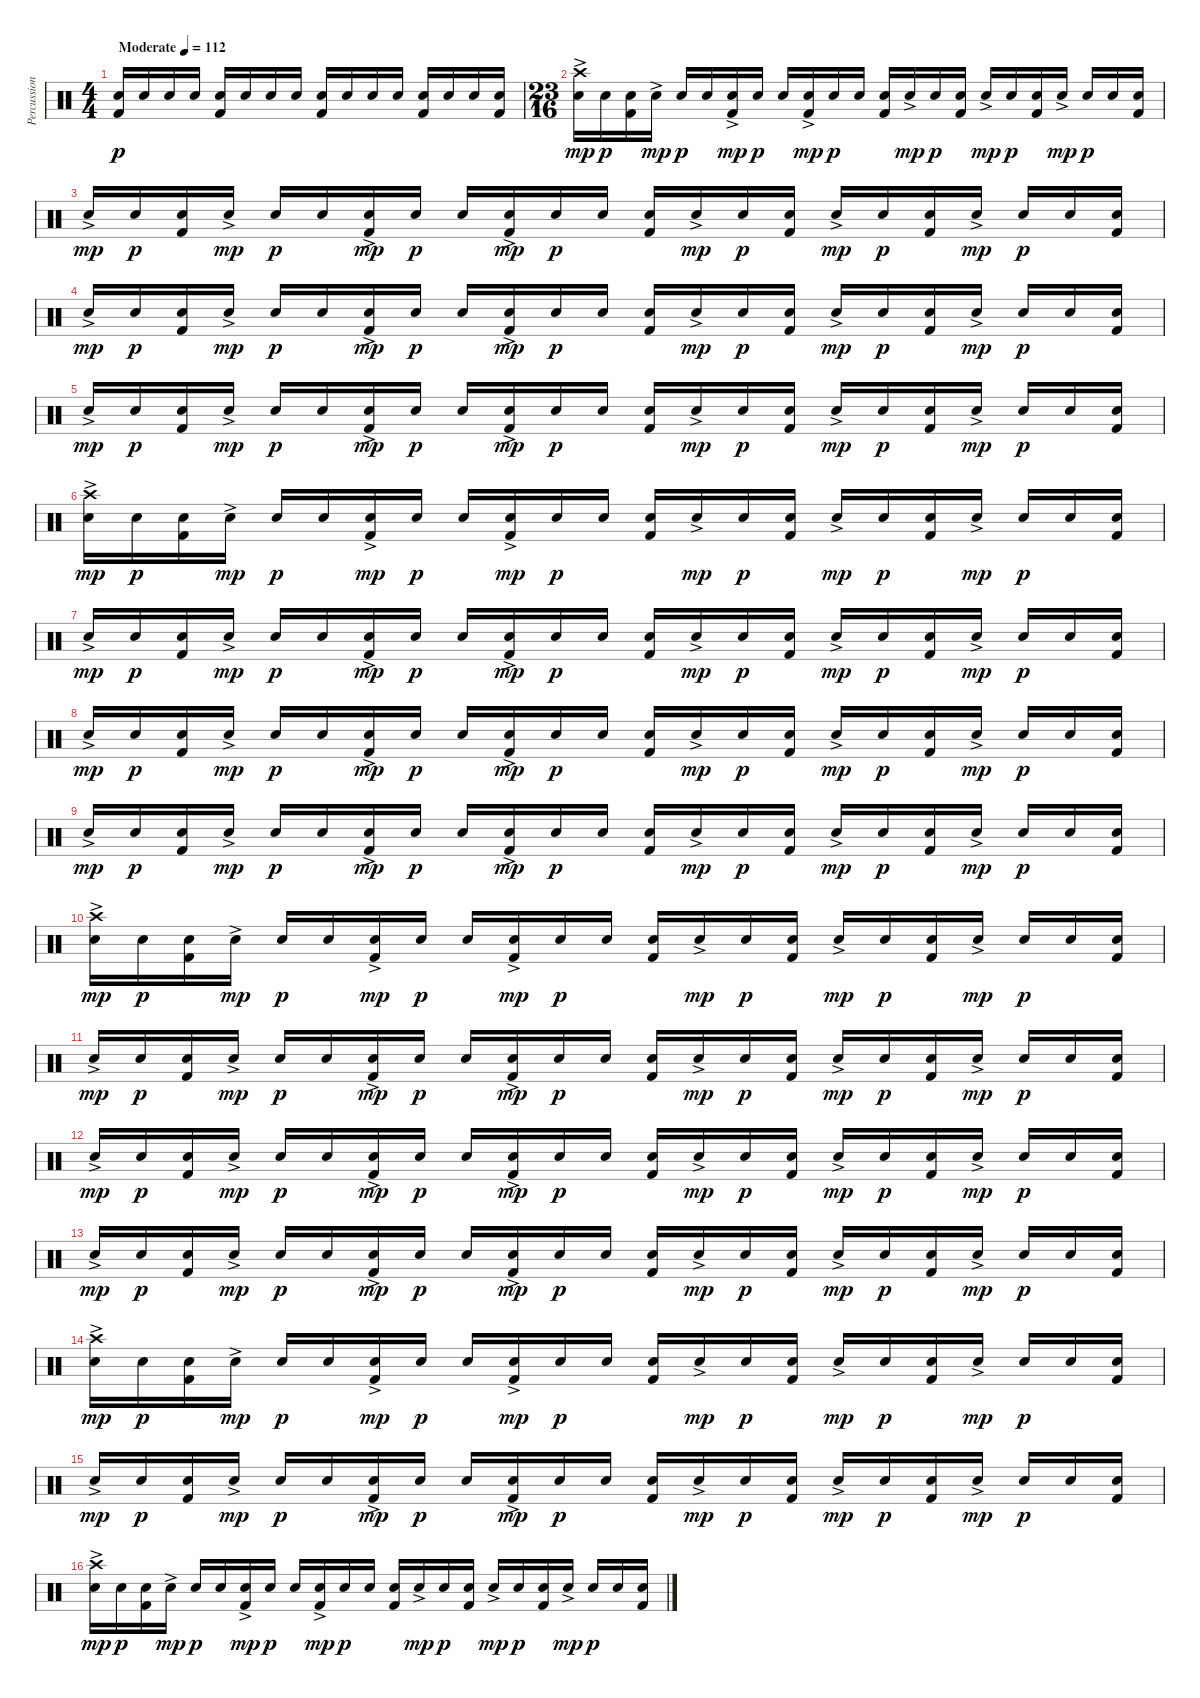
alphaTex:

\track ("Percussion" "Percussion") {instrument percussion}
\staff {score}
\articulation defaults
\ts (4 4)
\tempo (112 "Moderate")
\clef neutral
\ks c
("Kick (hit) 2" "Snare (hit) 2").16{dy p} "Snare (hit) 2".16 "Snare (hit) 2".16 "Snare (hit) 2".16 ("Kick (hit) 2" "Snare (hit) 2").16 "Snare (hit) 2".16 "Snare (hit) 2".16 "Snare (hit) 2".16 ("Kick (hit) 2" "Snare (hit) 2").16 "Snare (hit) 2".16 "Snare (hit) 2".16 "Snare (hit) 2".16 ("Kick (hit) 2" "Snare (hit) 2").16 "Snare (hit) 2".16 "Snare (hit) 2".16 ("Kick (hit) 2" "Snare (hit) 2").16 |
\ts (23 16)
("Crash high (hit)" "Snare (hit) 2"{ac}).16{dy mp} "Snare (hit) 2".16{dy p} ("Kick (hit) 2" "Snare (hit) 2").16 "Snare (hit) 2"{ac}.16{dy mp} "Snare (hit) 2".16{dy p} "Snare (hit) 2".16 ("Kick (hit) 2" "Snare (hit) 2"{ac}).16{dy mp} "Snare (hit) 2".16{dy p} "Snare (hit) 2".16 ("Kick (hit) 2" "Snare (hit) 2"{ac}).16{dy mp} "Snare (hit) 2".16{dy p} "Snare (hit) 2".16 ("Kick (hit) 2" "Snare (hit) 2").16 "Snare (hit) 2"{ac}.16{dy mp} "Snare (hit) 2".16{dy p} ("Kick (hit) 2" "Snare (hit) 2").16 "Snare (hit) 2"{ac}.16{dy mp} "Snare (hit) 2".16{dy p} ("Kick (hit) 2" "Snare (hit) 2").16 "Snare (hit) 2"{ac}.16{dy mp} "Snare (hit) 2".16{dy p} "Snare (hit) 2".16 ("Kick (hit) 2" "Snare (hit) 2").16 |
"Snare (hit) 2"{ac}.16{dy mp} "Snare (hit) 2".16{dy p} ("Kick (hit) 2" "Snare (hit) 2").16 "Snare (hit) 2"{ac}.16{dy mp} "Snare (hit) 2".16{dy p} "Snare (hit) 2".16 ("Kick (hit) 2" "Snare (hit) 2"{ac}).16{dy mp} "Snare (hit) 2".16{dy p} "Snare (hit) 2".16 ("Kick (hit) 2" "Snare (hit) 2"{ac}).16{dy mp} "Snare (hit) 2".16{dy p} "Snare (hit) 2".16 ("Kick (hit) 2" "Snare (hit) 2").16 "Snare (hit) 2"{ac}.16{dy mp} "Snare (hit) 2".16{dy p} ("Kick (hit) 2" "Snare (hit) 2").16 "Snare (hit) 2"{ac}.16{dy mp} "Snare (hit) 2".16{dy p} ("Kick (hit) 2" "Snare (hit) 2").16 "Snare (hit) 2"{ac}.16{dy mp} "Snare (hit) 2".16{dy p} "Snare (hit) 2".16 ("Kick (hit) 2" "Snare (hit) 2").16 |
"Snare (hit) 2"{ac}.16{dy mp} "Snare (hit) 2".16{dy p} ("Kick (hit) 2" "Snare (hit) 2").16 "Snare (hit) 2"{ac}.16{dy mp} "Snare (hit) 2".16{dy p} "Snare (hit) 2".16 ("Kick (hit) 2" "Snare (hit) 2"{ac}).16{dy mp} "Snare (hit) 2".16{dy p} "Snare (hit) 2".16 ("Kick (hit) 2" "Snare (hit) 2"{ac}).16{dy mp} "Snare (hit) 2".16{dy p} "Snare (hit) 2".16 ("Kick (hit) 2" "Snare (hit) 2").16 "Snare (hit) 2"{ac}.16{dy mp} "Snare (hit) 2".16{dy p} ("Kick (hit) 2" "Snare (hit) 2").16 "Snare (hit) 2"{ac}.16{dy mp} "Snare (hit) 2".16{dy p} ("Kick (hit) 2" "Snare (hit) 2").16 "Snare (hit) 2"{ac}.16{dy mp} "Snare (hit) 2".16{dy p} "Snare (hit) 2".16 ("Kick (hit) 2" "Snare (hit) 2").16 |
"Snare (hit) 2"{ac}.16{dy mp} "Snare (hit) 2".16{dy p} ("Kick (hit) 2" "Snare (hit) 2").16 "Snare (hit) 2"{ac}.16{dy mp} "Snare (hit) 2".16{dy p} "Snare (hit) 2".16 ("Kick (hit) 2" "Snare (hit) 2"{ac}).16{dy mp} "Snare (hit) 2".16{dy p} "Snare (hit) 2".16 ("Kick (hit) 2" "Snare (hit) 2"{ac}).16{dy mp} "Snare (hit) 2".16{dy p} "Snare (hit) 2".16 ("Kick (hit) 2" "Snare (hit) 2").16 "Snare (hit) 2"{ac}.16{dy mp} "Snare (hit) 2".16{dy p} ("Kick (hit) 2" "Snare (hit) 2").16 "Snare (hit) 2"{ac}.16{dy mp} "Snare (hit) 2".16{dy p} ("Kick (hit) 2" "Snare (hit) 2").16 "Snare (hit) 2"{ac}.16{dy mp} "Snare (hit) 2".16{dy p} "Snare (hit) 2".16 ("Kick (hit) 2" "Snare (hit) 2").16 |
("Crash high (hit)" "Snare (hit) 2"{ac}).16{dy mp} "Snare (hit) 2".16{dy p} ("Kick (hit) 2" "Snare (hit) 2").16 "Snare (hit) 2"{ac}.16{dy mp} "Snare (hit) 2".16{dy p} "Snare (hit) 2".16 ("Kick (hit) 2" "Snare (hit) 2"{ac}).16{dy mp} "Snare (hit) 2".16{dy p} "Snare (hit) 2".16 ("Kick (hit) 2" "Snare (hit) 2"{ac}).16{dy mp} "Snare (hit) 2".16{dy p} "Snare (hit) 2".16 ("Kick (hit) 2" "Snare (hit) 2").16 "Snare (hit) 2"{ac}.16{dy mp} "Snare (hit) 2".16{dy p} ("Kick (hit) 2" "Snare (hit) 2").16 "Snare (hit) 2"{ac}.16{dy mp} "Snare (hit) 2".16{dy p} ("Kick (hit) 2" "Snare (hit) 2").16 "Snare (hit) 2"{ac}.16{dy mp} "Snare (hit) 2".16{dy p} "Snare (hit) 2".16 ("Kick (hit) 2" "Snare (hit) 2").16 |
"Snare (hit) 2"{ac}.16{dy mp} "Snare (hit) 2".16{dy p} ("Kick (hit) 2" "Snare (hit) 2").16 "Snare (hit) 2"{ac}.16{dy mp} "Snare (hit) 2".16{dy p} "Snare (hit) 2".16 ("Kick (hit) 2" "Snare (hit) 2"{ac}).16{dy mp} "Snare (hit) 2".16{dy p} "Snare (hit) 2".16 ("Kick (hit) 2" "Snare (hit) 2"{ac}).16{dy mp} "Snare (hit) 2".16{dy p} "Snare (hit) 2".16 ("Kick (hit) 2" "Snare (hit) 2").16 "Snare (hit) 2"{ac}.16{dy mp} "Snare (hit) 2".16{dy p} ("Kick (hit) 2" "Snare (hit) 2").16 "Snare (hit) 2"{ac}.16{dy mp} "Snare (hit) 2".16{dy p} ("Kick (hit) 2" "Snare (hit) 2").16 "Snare (hit) 2"{ac}.16{dy mp} "Snare (hit) 2".16{dy p} "Snare (hit) 2".16 ("Kick (hit) 2" "Snare (hit) 2").16 |
"Snare (hit) 2"{ac}.16{dy mp} "Snare (hit) 2".16{dy p} ("Kick (hit) 2" "Snare (hit) 2").16 "Snare (hit) 2"{ac}.16{dy mp} "Snare (hit) 2".16{dy p} "Snare (hit) 2".16 ("Kick (hit) 2" "Snare (hit) 2"{ac}).16{dy mp} "Snare (hit) 2".16{dy p} "Snare (hit) 2".16 ("Kick (hit) 2" "Snare (hit) 2"{ac}).16{dy mp} "Snare (hit) 2".16{dy p} "Snare (hit) 2".16 ("Kick (hit) 2" "Snare (hit) 2").16 "Snare (hit) 2"{ac}.16{dy mp} "Snare (hit) 2".16{dy p} ("Kick (hit) 2" "Snare (hit) 2").16 "Snare (hit) 2"{ac}.16{dy mp} "Snare (hit) 2".16{dy p} ("Kick (hit) 2" "Snare (hit) 2").16 "Snare (hit) 2"{ac}.16{dy mp} "Snare (hit) 2".16{dy p} "Snare (hit) 2".16 ("Kick (hit) 2" "Snare (hit) 2").16 |
"Snare (hit) 2"{ac}.16{dy mp} "Snare (hit) 2".16{dy p} ("Kick (hit) 2" "Snare (hit) 2").16 "Snare (hit) 2"{ac}.16{dy mp} "Snare (hit) 2".16{dy p} "Snare (hit) 2".16 ("Kick (hit) 2" "Snare (hit) 2"{ac}).16{dy mp} "Snare (hit) 2".16{dy p} "Snare (hit) 2".16 ("Kick (hit) 2" "Snare (hit) 2"{ac}).16{dy mp} "Snare (hit) 2".16{dy p} "Snare (hit) 2".16 ("Kick (hit) 2" "Snare (hit) 2").16 "Snare (hit) 2"{ac}.16{dy mp} "Snare (hit) 2".16{dy p} ("Kick (hit) 2" "Snare (hit) 2").16 "Snare (hit) 2"{ac}.16{dy mp} "Snare (hit) 2".16{dy p} ("Kick (hit) 2" "Snare (hit) 2").16 "Snare (hit) 2"{ac}.16{dy mp} "Snare (hit) 2".16{dy p} "Snare (hit) 2".16 ("Kick (hit) 2" "Snare (hit) 2").16 |
("Crash high (hit)" "Snare (hit) 2"{ac}).16{dy mp} "Snare (hit) 2".16{dy p} ("Kick (hit) 2" "Snare (hit) 2").16 "Snare (hit) 2"{ac}.16{dy mp} "Snare (hit) 2".16{dy p} "Snare (hit) 2".16 ("Kick (hit) 2" "Snare (hit) 2"{ac}).16{dy mp} "Snare (hit) 2".16{dy p} "Snare (hit) 2".16 ("Kick (hit) 2" "Snare (hit) 2"{ac}).16{dy mp} "Snare (hit) 2".16{dy p} "Snare (hit) 2".16 ("Kick (hit) 2" "Snare (hit) 2").16 "Snare (hit) 2"{ac}.16{dy mp} "Snare (hit) 2".16{dy p} ("Kick (hit) 2" "Snare (hit) 2").16 "Snare (hit) 2"{ac}.16{dy mp} "Snare (hit) 2".16{dy p} ("Kick (hit) 2" "Snare (hit) 2").16 "Snare (hit) 2"{ac}.16{dy mp} "Snare (hit) 2".16{dy p} "Snare (hit) 2".16 ("Kick (hit) 2" "Snare (hit) 2").16 |
"Snare (hit) 2"{ac}.16{dy mp} "Snare (hit) 2".16{dy p} ("Kick (hit) 2" "Snare (hit) 2").16 "Snare (hit) 2"{ac}.16{dy mp} "Snare (hit) 2".16{dy p} "Snare (hit) 2".16 ("Kick (hit) 2" "Snare (hit) 2"{ac}).16{dy mp} "Snare (hit) 2".16{dy p} "Snare (hit) 2".16 ("Kick (hit) 2" "Snare (hit) 2"{ac}).16{dy mp} "Snare (hit) 2".16{dy p} "Snare (hit) 2".16 ("Kick (hit) 2" "Snare (hit) 2").16 "Snare (hit) 2"{ac}.16{dy mp} "Snare (hit) 2".16{dy p} ("Kick (hit) 2" "Snare (hit) 2").16 "Snare (hit) 2"{ac}.16{dy mp} "Snare (hit) 2".16{dy p} ("Kick (hit) 2" "Snare (hit) 2").16 "Snare (hit) 2"{ac}.16{dy mp} "Snare (hit) 2".16{dy p} "Snare (hit) 2".16 ("Kick (hit) 2" "Snare (hit) 2").16 |
"Snare (hit) 2"{ac}.16{dy mp} "Snare (hit) 2".16{dy p} ("Kick (hit) 2" "Snare (hit) 2").16 "Snare (hit) 2"{ac}.16{dy mp} "Snare (hit) 2".16{dy p} "Snare (hit) 2".16 ("Kick (hit) 2" "Snare (hit) 2"{ac}).16{dy mp} "Snare (hit) 2".16{dy p} "Snare (hit) 2".16 ("Kick (hit) 2" "Snare (hit) 2"{ac}).16{dy mp} "Snare (hit) 2".16{dy p} "Snare (hit) 2".16 ("Kick (hit) 2" "Snare (hit) 2").16 "Snare (hit) 2"{ac}.16{dy mp} "Snare (hit) 2".16{dy p} ("Kick (hit) 2" "Snare (hit) 2").16 "Snare (hit) 2"{ac}.16{dy mp} "Snare (hit) 2".16{dy p} ("Kick (hit) 2" "Snare (hit) 2").16 "Snare (hit) 2"{ac}.16{dy mp} "Snare (hit) 2".16{dy p} "Snare (hit) 2".16 ("Kick (hit) 2" "Snare (hit) 2").16 |
"Snare (hit) 2"{ac}.16{dy mp} "Snare (hit) 2".16{dy p} ("Kick (hit) 2" "Snare (hit) 2").16 "Snare (hit) 2"{ac}.16{dy mp} "Snare (hit) 2".16{dy p} "Snare (hit) 2".16 ("Kick (hit) 2" "Snare (hit) 2"{ac}).16{dy mp} "Snare (hit) 2".16{dy p} "Snare (hit) 2".16 ("Kick (hit) 2" "Snare (hit) 2"{ac}).16{dy mp} "Snare (hit) 2".16{dy p} "Snare (hit) 2".16 ("Kick (hit) 2" "Snare (hit) 2").16 "Snare (hit) 2"{ac}.16{dy mp} "Snare (hit) 2".16{dy p} ("Kick (hit) 2" "Snare (hit) 2").16 "Snare (hit) 2"{ac}.16{dy mp} "Snare (hit) 2".16{dy p} ("Kick (hit) 2" "Snare (hit) 2").16 "Snare (hit) 2"{ac}.16{dy mp} "Snare (hit) 2".16{dy p} "Snare (hit) 2".16 ("Kick (hit) 2" "Snare (hit) 2").16 |
("Crash high (hit)" "Snare (hit) 2"{ac}).16{dy mp} "Snare (hit) 2".16{dy p} ("Kick (hit) 2" "Snare (hit) 2").16 "Snare (hit) 2"{ac}.16{dy mp} "Snare (hit) 2".16{dy p} "Snare (hit) 2".16 ("Kick (hit) 2" "Snare (hit) 2"{ac}).16{dy mp} "Snare (hit) 2".16{dy p} "Snare (hit) 2".16 ("Kick (hit) 2" "Snare (hit) 2"{ac}).16{dy mp} "Snare (hit) 2".16{dy p} "Snare (hit) 2".16 ("Kick (hit) 2" "Snare (hit) 2").16 "Snare (hit) 2"{ac}.16{dy mp} "Snare (hit) 2".16{dy p} ("Kick (hit) 2" "Snare (hit) 2").16 "Snare (hit) 2"{ac}.16{dy mp} "Snare (hit) 2".16{dy p} ("Kick (hit) 2" "Snare (hit) 2").16 "Snare (hit) 2"{ac}.16{dy mp} "Snare (hit) 2".16{dy p} "Snare (hit) 2".16 ("Kick (hit) 2" "Snare (hit) 2").16 |
"Snare (hit) 2"{ac}.16{dy mp} "Snare (hit) 2".16{dy p} ("Kick (hit) 2" "Snare (hit) 2").16 "Snare (hit) 2"{ac}.16{dy mp} "Snare (hit) 2".16{dy p} "Snare (hit) 2".16 ("Kick (hit) 2" "Snare (hit) 2"{ac}).16{dy mp} "Snare (hit) 2".16{dy p} "Snare (hit) 2".16 ("Kick (hit) 2" "Snare (hit) 2"{ac}).16{dy mp} "Snare (hit) 2".16{dy p} "Snare (hit) 2".16 ("Kick (hit) 2" "Snare (hit) 2").16 "Snare (hit) 2"{ac}.16{dy mp} "Snare (hit) 2".16{dy p} ("Kick (hit) 2" "Snare (hit) 2").16 "Snare (hit) 2"{ac}.16{dy mp} "Snare (hit) 2".16{dy p} ("Kick (hit) 2" "Snare (hit) 2").16 "Snare (hit) 2"{ac}.16{dy mp} "Snare (hit) 2".16{dy p} "Snare (hit) 2".16 ("Kick (hit) 2" "Snare (hit) 2").16 |
("Crash high (hit)" "Snare (hit) 2"{ac}).16{dy mp} "Snare (hit) 2".16{dy p} ("Kick (hit) 2" "Snare (hit) 2").16 "Snare (hit) 2"{ac}.16{dy mp} "Snare (hit) 2".16{dy p} "Snare (hit) 2".16 ("Kick (hit) 2" "Snare (hit) 2"{ac}).16{dy mp} "Snare (hit) 2".16{dy p} "Snare (hit) 2".16 ("Kick (hit) 2" "Snare (hit) 2"{ac}).16{dy mp} "Snare (hit) 2".16{dy p} "Snare (hit) 2".16 ("Kick (hit) 2" "Snare (hit) 2").16 "Snare (hit) 2"{ac}.16{dy mp} "Snare (hit) 2".16{dy p} ("Kick (hit) 2" "Snare (hit) 2").16 "Snare (hit) 2"{ac}.16{dy mp} "Snare (hit) 2".16{dy p} ("Kick (hit) 2" "Snare (hit) 2").16 "Snare (hit) 2"{ac}.16{dy mp} "Snare (hit) 2".16{dy p} "Snare (hit) 2".16 ("Kick (hit) 2" "Snare (hit) 2").16
